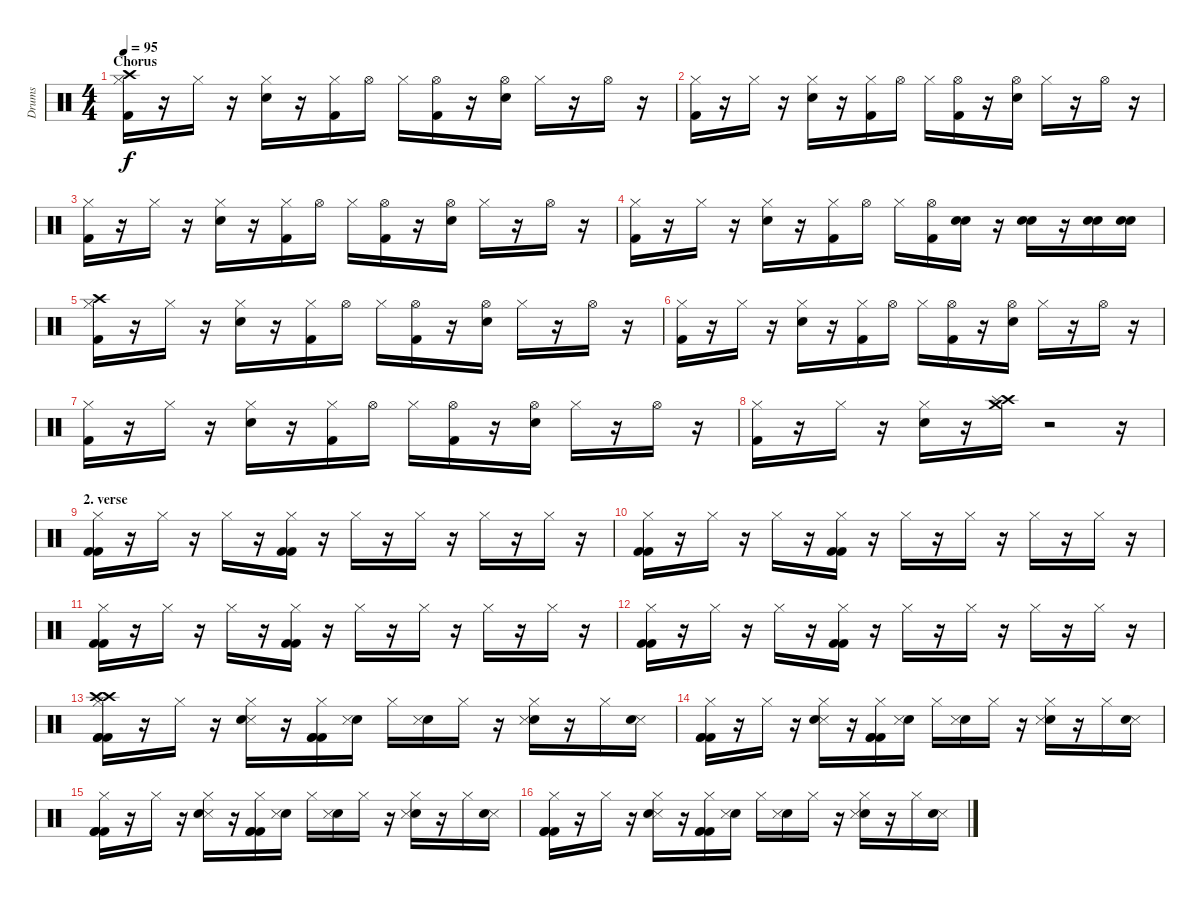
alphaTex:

\track ("Drums" "Drums") {instrument percussion}
\staff {score}
\articulation defaults
\ts (4 4)
\section ("" "Chorus")
\tempo 95
\clef neutral
\ks c
("Crash high (hit)" "Hi-Hat (closed)" "Kick (hit) 2").16{dy f} r.16 "Hi-Hat (closed)".16 r.16 ("Hi-Hat (closed)" "Snare (hit) 2").16 r.16 ("Hi-Hat (closed)" "Kick (hit) 2").16 "Hi-Hat (open)".16 "Hi-Hat (closed)".16 ("Hi-Hat (open)" "Kick (hit) 2").16 r.16 ("Hi-Hat (open)" "Snare (hit) 2").16 "Hi-Hat (closed)".16 r.16 "Hi-Hat (open)".16 r.16 |
("Hi-Hat (closed)" "Kick (hit) 2").16 r.16 "Hi-Hat (closed)".16 r.16 ("Hi-Hat (closed)" "Snare (hit) 2").16 r.16 ("Hi-Hat (closed)" "Kick (hit) 2").16 "Hi-Hat (open)".16 "Hi-Hat (closed)".16 ("Hi-Hat (open)" "Kick (hit) 2").16 r.16 ("Hi-Hat (open)" "Snare (hit) 2").16 "Hi-Hat (closed)".16 r.16 "Hi-Hat (open)".16 r.16 |
("Hi-Hat (closed)" "Kick (hit) 2").16 r.16 "Hi-Hat (closed)".16 r.16 ("Hi-Hat (closed)" "Snare (hit) 2").16 r.16 ("Hi-Hat (closed)" "Kick (hit) 2").16 "Hi-Hat (open)".16 "Hi-Hat (closed)".16 ("Hi-Hat (open)" "Kick (hit) 2").16 r.16 ("Hi-Hat (open)" "Snare (hit) 2").16 "Hi-Hat (closed)".16 r.16 "Hi-Hat (open)".16 r.16 |
("Hi-Hat (closed)" "Kick (hit) 2").16 r.16 "Hi-Hat (closed)".16 r.16 ("Hi-Hat (closed)" "Snare (hit) 2").16 r.16 ("Hi-Hat (closed)" "Kick (hit) 2").16 "Hi-Hat (open)".16 "Hi-Hat (closed)".16 ("Hi-Hat (open)" "Kick (hit) 2").16 ("Snare (hit) 2" "Snare (hit) 2").16 r.16 ("Snare (hit) 2" "Snare (hit) 2").16 r.16 ("Snare (hit) 2" "Snare (hit) 2").16 ("Snare (hit) 2" "Snare (hit) 2").16 |
("Crash high (hit)" "Hi-Hat (closed)" "Kick (hit) 2").16 r.16 "Hi-Hat (closed)".16 r.16 ("Hi-Hat (closed)" "Snare (hit) 2").16 r.16 ("Hi-Hat (closed)" "Kick (hit) 2").16 "Hi-Hat (open)".16 "Hi-Hat (closed)".16 ("Hi-Hat (open)" "Kick (hit) 2").16 r.16 ("Hi-Hat (open)" "Snare (hit) 2").16 "Hi-Hat (closed)".16 r.16 "Hi-Hat (open)".16 r.16 |
("Hi-Hat (closed)" "Kick (hit) 2").16 r.16 "Hi-Hat (closed)".16 r.16 ("Hi-Hat (closed)" "Snare (hit) 2").16 r.16 ("Hi-Hat (closed)" "Kick (hit) 2").16 "Hi-Hat (open)".16 "Hi-Hat (closed)".16 ("Hi-Hat (open)" "Kick (hit) 2").16 r.16 ("Hi-Hat (open)" "Snare (hit) 2").16 "Hi-Hat (closed)".16 r.16 "Hi-Hat (open)".16 r.16 |
("Hi-Hat (closed)" "Kick (hit) 2").16 r.16 "Hi-Hat (closed)".16 r.16 ("Hi-Hat (closed)" "Snare (hit) 2").16 r.16 ("Hi-Hat (closed)" "Kick (hit) 2").16 "Hi-Hat (open)".16 "Hi-Hat (closed)".16 ("Hi-Hat (open)" "Kick (hit) 2").16 r.16 ("Hi-Hat (open)" "Snare (hit) 2").16 "Hi-Hat (closed)".16 r.16 "Hi-Hat (open)".16 r.16 |
("Hi-Hat (closed)" "Kick (hit) 2").16 r.16 "Hi-Hat (closed)".16 r.16 ("Hi-Hat (closed)" "Snare (hit) 2").16 r.16 ("Crash high (hit)" "Splash (hit)" "Crash medium (hit)").16 r.2 r.16 |
\section ("" "2. verse")
("Hi-Hat (closed)" "Kick (hit) 2" "Kick (hit) 2").16 r.16 "Hi-Hat (closed)".16 r.16 "Hi-Hat (closed)".16 r.16 ("Hi-Hat (closed)" "Kick (hit) 2" "Kick (hit) 2").16 r.16 "Hi-Hat (closed)".16 r.16 "Hi-Hat (closed)".16 r.16 "Hi-Hat (closed)".16 r.16 "Hi-Hat (closed)".16 r.16 |
("Hi-Hat (closed)" "Kick (hit) 2" "Kick (hit) 2").16 r.16 "Hi-Hat (closed)".16 r.16 "Hi-Hat (closed)".16 r.16 ("Hi-Hat (closed)" "Kick (hit) 2" "Kick (hit) 2").16 r.16 "Hi-Hat (closed)".16 r.16 "Hi-Hat (closed)".16 r.16 "Hi-Hat (closed)".16 r.16 "Hi-Hat (closed)".16 r.16 |
("Hi-Hat (closed)" "Kick (hit) 2" "Kick (hit) 2").16 r.16 "Hi-Hat (closed)".16 r.16 "Hi-Hat (closed)".16 r.16 ("Hi-Hat (closed)" "Kick (hit) 2" "Kick (hit) 2").16 r.16 "Hi-Hat (closed)".16 r.16 "Hi-Hat (closed)".16 r.16 "Hi-Hat (closed)".16 r.16 "Hi-Hat (closed)".16 r.16 |
("Hi-Hat (closed)" "Kick (hit) 2" "Kick (hit) 2").16 r.16 "Hi-Hat (closed)".16 r.16 "Hi-Hat (closed)".16 r.16 ("Hi-Hat (closed)" "Kick (hit) 2" "Kick (hit) 2").16 r.16 "Hi-Hat (closed)".16 r.16 "Hi-Hat (closed)".16 r.16 "Hi-Hat (closed)".16 r.16 "Hi-Hat (closed)".16 r.16 |
("Kick (hit) 2" "Crash high (hit)" "Crash high (hit)" "Hi-Hat (closed)" "Kick (hit) 2" "Kick (hit) 2").16 r.16 "Hi-Hat (closed)".16 r.16 ("Hi-Hat (closed)" "Snare (side stick) 3" "Electric Snare (hit)").16 r.16 ("Kick (hit) 2" "Kick (hit) 2" "Kick (hit) 2" "Hi-Hat (closed)").16 ("Electric Snare (hit)" "Snare (side stick) 3").16 "Hi-Hat (closed)".16 ("Electric Snare (hit)" "Snare (side stick) 3").16 "Hi-Hat (closed)".16 r.16 ("Hi-Hat (closed)" "Electric Snare (hit)" "Snare (side stick) 3").16 r.16 "Hi-Hat (closed)".16 ("Snare (side stick) 3" "Electric Snare (hit)").16 |
("Kick (hit) 2" "Hi-Hat (closed)" "Kick (hit) 2" "Kick (hit) 2").16 r.16 "Hi-Hat (closed)".16 r.16 ("Hi-Hat (closed)" "Snare (side stick) 3" "Electric Snare (hit)").16 r.16 ("Kick (hit) 2" "Kick (hit) 2" "Kick (hit) 2" "Hi-Hat (closed)").16 ("Electric Snare (hit)" "Snare (side stick) 3").16 "Hi-Hat (closed)".16 ("Electric Snare (hit)" "Snare (side stick) 3").16 "Hi-Hat (closed)".16 r.16 ("Hi-Hat (closed)" "Electric Snare (hit)" "Snare (side stick) 3").16 r.16 "Hi-Hat (closed)".16 ("Snare (side stick) 3" "Electric Snare (hit)").16 |
("Kick (hit) 2" "Hi-Hat (closed)" "Kick (hit) 2" "Kick (hit) 2").16 r.16 "Hi-Hat (closed)".16 r.16 ("Hi-Hat (closed)" "Snare (side stick) 3" "Electric Snare (hit)").16 r.16 ("Kick (hit) 2" "Kick (hit) 2" "Kick (hit) 2" "Hi-Hat (closed)").16 ("Electric Snare (hit)" "Snare (side stick) 3").16 "Hi-Hat (closed)".16 ("Electric Snare (hit)" "Snare (side stick) 3").16 "Hi-Hat (closed)".16 r.16 ("Hi-Hat (closed)" "Electric Snare (hit)" "Snare (side stick) 3").16 r.16 "Hi-Hat (closed)".16 ("Snare (side stick) 3" "Electric Snare (hit)").16 |
("Kick (hit) 2" "Hi-Hat (closed)" "Kick (hit) 2" "Kick (hit) 2").16 r.16 "Hi-Hat (closed)".16 r.16 ("Hi-Hat (closed)" "Snare (side stick) 3" "Electric Snare (hit)").16 r.16 ("Kick (hit) 2" "Kick (hit) 2" "Kick (hit) 2" "Hi-Hat (closed)").16 ("Electric Snare (hit)" "Snare (side stick) 3").16 "Hi-Hat (closed)".16 ("Electric Snare (hit)" "Snare (side stick) 3").16 "Hi-Hat (closed)".16 r.16 ("Hi-Hat (closed)" "Electric Snare (hit)" "Snare (side stick) 3").16 r.16 "Hi-Hat (closed)".16 ("Snare (side stick) 3" "Electric Snare (hit)").16
